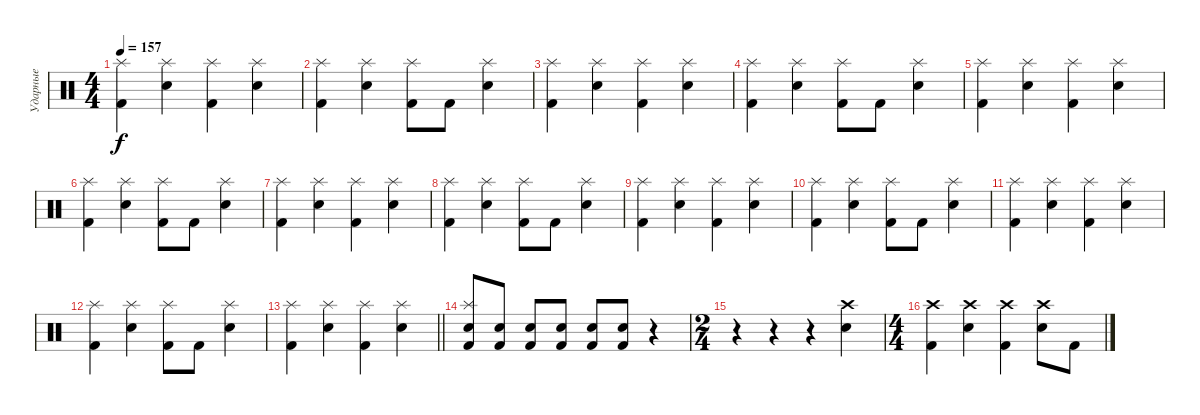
\track ("Ударные" "Ударные") {instrument percussion}
\staff {score}
\articulation defaults
\ts (4 4)
\tempo 157
\clef neutral
\ks c
("Kick (hit) 2" "Splash (hit)").4{dy f} ("Electric Snare (hit)" "Splash (hit)").4 ("Kick (hit) 2" "Splash (hit)").4 ("Electric Snare (hit)" "Splash (hit)").4 |
("Kick (hit) 2" "Splash (hit)").4 ("Electric Snare (hit)" "Splash (hit)").4 ("Kick (hit) 2" "Splash (hit)").8 "Kick (hit) 2".8 ("Electric Snare (hit)" "Splash (hit)").4 |
("Kick (hit) 2" "Splash (hit)").4 ("Electric Snare (hit)" "Splash (hit)").4 ("Kick (hit) 2" "Splash (hit)").4 ("Electric Snare (hit)" "Splash (hit)").4 |
("Kick (hit) 2" "Splash (hit)").4 ("Electric Snare (hit)" "Splash (hit)").4 ("Kick (hit) 2" "Splash (hit)").8 "Kick (hit) 2".8 ("Electric Snare (hit)" "Splash (hit)").4 |
("Kick (hit) 2" "Splash (hit)").4 ("Electric Snare (hit)" "Splash (hit)").4 ("Kick (hit) 2" "Splash (hit)").4 ("Electric Snare (hit)" "Splash (hit)").4 |
("Kick (hit) 2" "Splash (hit)").4 ("Electric Snare (hit)" "Splash (hit)").4 ("Kick (hit) 2" "Splash (hit)").8 "Kick (hit) 2".8 ("Electric Snare (hit)" "Splash (hit)").4 |
("Kick (hit) 2" "Splash (hit)").4 ("Electric Snare (hit)" "Splash (hit)").4 ("Kick (hit) 2" "Splash (hit)").4 ("Electric Snare (hit)" "Splash (hit)").4 |
("Kick (hit) 2" "Splash (hit)").4 ("Electric Snare (hit)" "Splash (hit)").4 ("Kick (hit) 2" "Splash (hit)").8 "Kick (hit) 2".8 ("Electric Snare (hit)" "Splash (hit)").4 |
("Kick (hit) 2" "Splash (hit)").4 ("Electric Snare (hit)" "Splash (hit)").4 ("Kick (hit) 2" "Splash (hit)").4 ("Electric Snare (hit)" "Splash (hit)").4 |
("Kick (hit) 2" "Splash (hit)").4 ("Electric Snare (hit)" "Splash (hit)").4 ("Kick (hit) 2" "Splash (hit)").8 "Kick (hit) 2".8 ("Electric Snare (hit)" "Splash (hit)").4 |
("Kick (hit) 2" "Splash (hit)").4 ("Electric Snare (hit)" "Splash (hit)").4 ("Kick (hit) 2" "Splash (hit)").4 ("Electric Snare (hit)" "Splash (hit)").4 |
("Kick (hit) 2" "Splash (hit)").4 ("Electric Snare (hit)" "Splash (hit)").4 ("Kick (hit) 2" "Splash (hit)").8 "Kick (hit) 2".8 ("Electric Snare (hit)" "Splash (hit)").4 |
\barLineRight lightlight
("Kick (hit) 2" "Splash (hit)").4 ("Electric Snare (hit)" "Splash (hit)").4 ("Kick (hit) 2" "Splash (hit)").4 ("Electric Snare (hit)" "Splash (hit)").4 |
\section ("" "")
("Kick (hit) 2" "Snare (hit) 2" "Splash (hit)").8 ("Kick (hit) 2" "Snare (hit) 2").8 ("Kick (hit) 2" "Snare (hit) 2").8 ("Kick (hit) 2" "Snare (hit) 2").8 ("Kick (hit) 2" "Snare (hit) 2").8 ("Kick (hit) 2" "Electric Snare (hit)").8 r.4 |
\ts (2 4)
r.4 r.4 r.4 ("Electric Snare (hit)" "Crash high (hit)").4 |
\ts (4 4)
("Kick (hit) 2" "Crash high (hit)").4 ("Electric Snare (hit)" "Crash high (hit)").4 ("Kick (hit) 2" "Crash high (hit)").4 ("Electric Snare (hit)" "Crash high (hit)").8 "Kick (hit) 2".8
